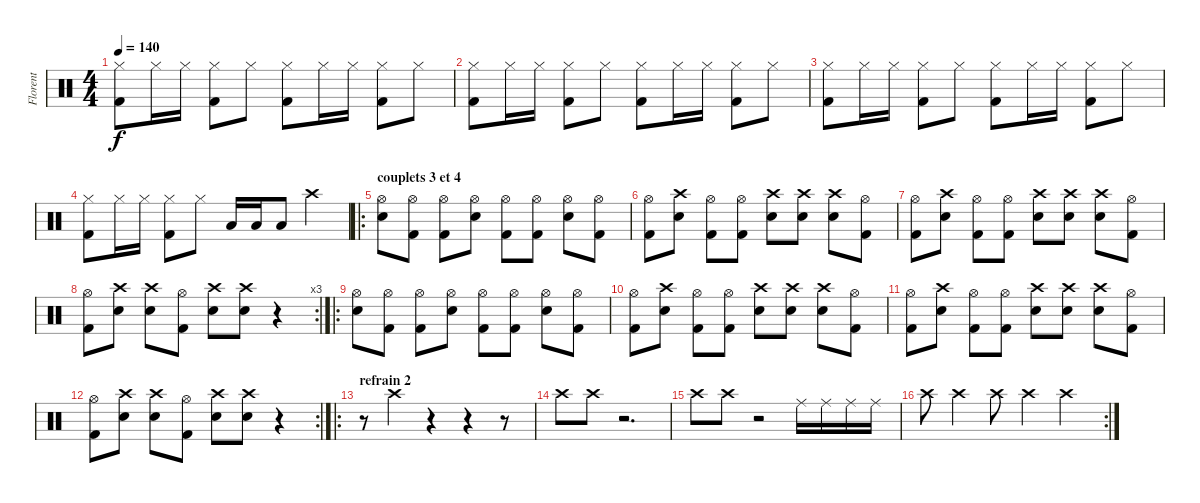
\track ("Florent" "Florent") {instrument percussion}
\staff {score}
\articulation defaults
\ts (4 4)
\tempo 140
\clef neutral
\ks c
("Hi-Hat (closed)" "Kick (hit) 2").8{dy f} "Hi-Hat (closed)".16 "Hi-Hat (closed)".16 ("Hi-Hat (closed)" "Kick (hit) 2").8 "Hi-Hat (closed)".8 ("Hi-Hat (closed)" "Kick (hit) 2").8 "Hi-Hat (closed)".16 "Hi-Hat (closed)".16 ("Hi-Hat (closed)" "Kick (hit) 2").8 "Hi-Hat (closed)".8 |
("Hi-Hat (closed)" "Kick (hit) 2").8 "Hi-Hat (closed)".16 "Hi-Hat (closed)".16 ("Hi-Hat (closed)" "Kick (hit) 2").8 "Hi-Hat (closed)".8 ("Hi-Hat (closed)" "Kick (hit) 2").8 "Hi-Hat (closed)".16 "Hi-Hat (closed)".16 ("Hi-Hat (closed)" "Kick (hit) 2").8 "Hi-Hat (closed)".8 |
("Hi-Hat (closed)" "Kick (hit) 2").8 "Hi-Hat (closed)".16 "Hi-Hat (closed)".16 ("Hi-Hat (closed)" "Kick (hit) 2").8 "Hi-Hat (closed)".8 ("Hi-Hat (closed)" "Kick (hit) 2").8 "Hi-Hat (closed)".16 "Hi-Hat (closed)".16 ("Hi-Hat (closed)" "Kick (hit) 2").8 "Hi-Hat (closed)".8 |
("Hi-Hat (closed)" "Kick (hit) 2").8 "Hi-Hat (closed)".16 "Hi-Hat (closed)".16 ("Hi-Hat (closed)" "Kick (hit) 2").8 "Hi-Hat (closed)".8 "Low Tom (hit)".16 "Low Tom (hit)".16 "Low Tom (hit)".8 "Crash high (hit)".4 |
\ro
\section ("" "couplets 3 et 4")
("Hi-Hat (open)" "Snare (hit) 2").8 ("Hi-Hat (open)" "Kick (hit) 2").8 ("Hi-Hat (open)" "Kick (hit) 2").8 ("Hi-Hat (open)" "Snare (hit) 2").8 ("Hi-Hat (open)" "Kick (hit) 2").8 ("Hi-Hat (open)" "Kick (hit) 2").8 ("Hi-Hat (open)" "Snare (hit) 2").8 ("Hi-Hat (open)" "Kick (hit) 2").8 |
("Hi-Hat (open)" "Kick (hit) 2").8 ("Crash high (hit)" "Snare (hit) 2").8 ("Hi-Hat (open)" "Kick (hit) 2").8 ("Hi-Hat (open)" "Kick (hit) 2").8 ("Crash high (hit)" "Snare (hit) 2").8 ("Crash high (hit)" "Snare (hit) 2").8 ("Crash high (hit)" "Snare (hit) 2").8 ("Hi-Hat (open)" "Kick (hit) 2").8 |
("Hi-Hat (open)" "Kick (hit) 2").8 ("Crash high (hit)" "Snare (hit) 2").8 ("Hi-Hat (open)" "Kick (hit) 2").8 ("Hi-Hat (open)" "Kick (hit) 2").8 ("Crash high (hit)" "Snare (hit) 2").8 ("Crash high (hit)" "Snare (hit) 2").8 ("Crash high (hit)" "Snare (hit) 2").8 ("Hi-Hat (open)" "Kick (hit) 2").8 |
\rc 3
("Hi-Hat (open)" "Kick (hit) 2").8 ("Crash high (hit)" "Snare (hit) 2").8 ("Crash high (hit)" "Snare (hit) 2").8 ("Hi-Hat (open)" "Kick (hit) 2").8 ("Crash high (hit)" "Snare (hit) 2").8 ("Crash high (hit)" "Snare (hit) 2").8 r.4 |
\ro
("Hi-Hat (open)" "Snare (hit) 2").8 ("Hi-Hat (open)" "Kick (hit) 2").8 ("Hi-Hat (open)" "Kick (hit) 2").8 ("Hi-Hat (open)" "Snare (hit) 2").8 ("Hi-Hat (open)" "Kick (hit) 2").8 ("Hi-Hat (open)" "Kick (hit) 2").8 ("Hi-Hat (open)" "Snare (hit) 2").8 ("Hi-Hat (open)" "Kick (hit) 2").8 |
("Hi-Hat (open)" "Kick (hit) 2").8 ("Crash high (hit)" "Snare (hit) 2").8 ("Hi-Hat (open)" "Kick (hit) 2").8 ("Hi-Hat (open)" "Kick (hit) 2").8 ("Crash high (hit)" "Snare (hit) 2").8 ("Crash high (hit)" "Snare (hit) 2").8 ("Crash high (hit)" "Snare (hit) 2").8 ("Hi-Hat (open)" "Kick (hit) 2").8 |
("Hi-Hat (open)" "Kick (hit) 2").8 ("Crash high (hit)" "Snare (hit) 2").8 ("Hi-Hat (open)" "Kick (hit) 2").8 ("Hi-Hat (open)" "Kick (hit) 2").8 ("Crash high (hit)" "Snare (hit) 2").8 ("Crash high (hit)" "Snare (hit) 2").8 ("Crash high (hit)" "Snare (hit) 2").8 ("Hi-Hat (open)" "Kick (hit) 2").8 |
\rc 2
("Hi-Hat (open)" "Kick (hit) 2").8 ("Crash high (hit)" "Snare (hit) 2").8 ("Crash high (hit)" "Snare (hit) 2").8 ("Hi-Hat (open)" "Kick (hit) 2").8 ("Crash high (hit)" "Snare (hit) 2").8 ("Crash high (hit)" "Snare (hit) 2").8 r.4 |
\ro
\section ("" "refrain 2")
r.8 "Crash high (hit)".4 r.4 r.4 r.8 |
"Crash high (hit)".8 "Crash high (hit)".8 r.2{d} |
"Crash high (hit)".8 "Crash high (hit)".8 r.2 "Ride (middle)".16 "Ride (middle)".16 "Ride (middle)".16 "Ride (middle)".16 |
\rc 2 "Crash high (hit)".8 "Crash high (hit)".4 "Crash high (hit)".8 "Crash high (hit)".4 "Crash high (hit)".4
